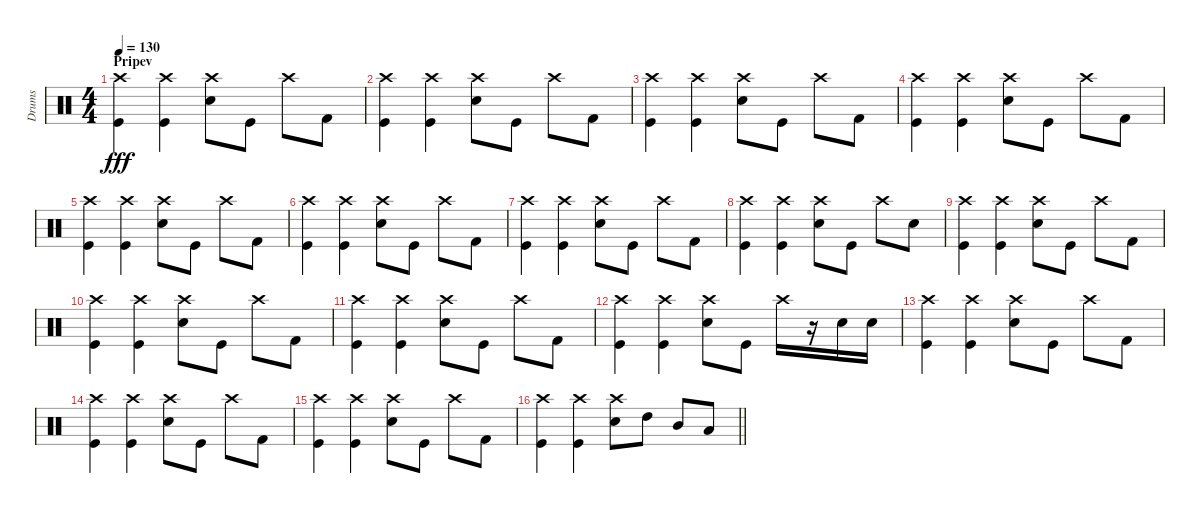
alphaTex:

\track ("Drums" "Drums") {instrument percussion}
\staff {score}
\articulation defaults
\ts (4 4)
\section ("" "Pripev")
\tempo 130
\clef neutral
\ks c
("Crash high (hit)" "Kick (hit)").4{dy fff} ("Crash high (hit)" "Kick (hit)").4 ("Crash high (hit)" "Snare (hit) 2").8 "Kick (hit)".8 "Crash high (hit)".8 "Kick (hit) 2".8 |
("Crash high (hit)" "Kick (hit)").4 ("Crash high (hit)" "Kick (hit)").4 ("Crash high (hit)" "Snare (hit) 2").8 "Kick (hit)".8 "Crash high (hit)".8 "Kick (hit) 2".8 |
("Crash high (hit)" "Kick (hit)").4 ("Crash high (hit)" "Kick (hit)").4 ("Crash high (hit)" "Snare (hit) 2").8 "Kick (hit)".8 "Crash high (hit)".8 "Kick (hit) 2".8 |
("Crash high (hit)" "Kick (hit)").4 ("Crash high (hit)" "Kick (hit)").4 ("Crash high (hit)" "Snare (hit) 2").8 "Kick (hit)".8 "Crash high (hit)".8 "Kick (hit) 2".8 |
("Crash high (hit)" "Kick (hit)").4 ("Crash high (hit)" "Kick (hit)").4 ("Crash high (hit)" "Snare (hit) 2").8 "Kick (hit)".8 "Crash high (hit)".8 "Kick (hit) 2".8 |
("Crash high (hit)" "Kick (hit)").4 ("Crash high (hit)" "Kick (hit)").4 ("Crash high (hit)" "Snare (hit) 2").8 "Kick (hit)".8 "Crash high (hit)".8 "Kick (hit) 2".8 |
("Crash high (hit)" "Kick (hit)").4 ("Crash high (hit)" "Kick (hit)").4 ("Crash high (hit)" "Snare (hit) 2").8 "Kick (hit)".8 "Crash high (hit)".8 "Kick (hit) 2".8 |
("Crash high (hit)" "Kick (hit)").4 ("Crash high (hit)" "Kick (hit)").4 ("Crash high (hit)" "Snare (hit) 2").8 "Kick (hit)".8 "Crash high (hit)".8 "Snare (hit) 2".8 |
("Crash high (hit)" "Kick (hit)").4 ("Crash high (hit)" "Kick (hit)").4 ("Crash high (hit)" "Snare (hit) 2").8 "Kick (hit)".8 "Crash high (hit)".8 "Kick (hit) 2".8 |
("Crash high (hit)" "Kick (hit)").4 ("Crash high (hit)" "Kick (hit)").4 ("Crash high (hit)" "Snare (hit) 2").8 "Kick (hit)".8 "Crash high (hit)".8 "Kick (hit) 2".8 |
("Crash high (hit)" "Kick (hit)").4 ("Crash high (hit)" "Kick (hit)").4 ("Crash high (hit)" "Snare (hit) 2").8 "Kick (hit)".8 "Crash high (hit)".8 "Kick (hit) 2".8 |
("Crash high (hit)" "Kick (hit)").4 ("Crash high (hit)" "Kick (hit)").4 ("Crash high (hit)" "Snare (hit) 2").8 "Kick (hit)".8 "Crash high (hit)".16 r.16 "Snare (hit) 2".16 "Snare (hit) 2".16 |
("Crash high (hit)" "Kick (hit)").4 ("Crash high (hit)" "Kick (hit)").4 ("Crash high (hit)" "Snare (hit) 2").8 "Kick (hit)".8 "Crash high (hit)".8 "Kick (hit) 2".8 |
("Crash high (hit)" "Kick (hit)").4 ("Crash high (hit)" "Kick (hit)").4 ("Crash high (hit)" "Snare (hit) 2").8 "Kick (hit)".8 "Crash high (hit)".8 "Kick (hit) 2".8 |
("Crash high (hit)" "Kick (hit)").4 ("Crash high (hit)" "Kick (hit)").4 ("Crash high (hit)" "Snare (hit) 2").8 "Kick (hit)".8 "Crash high (hit)".8 "Kick (hit) 2".8 |
\barLineRight lightlight
("Crash high (hit)" "Kick (hit)").4 ("Crash high (hit)" "Kick (hit)").4 ("Crash high (hit)" "Snare (hit) 2").8 "High Tom (hit)".8 "Mid Tom (hit)".8 "Low Tom (hit)".8
